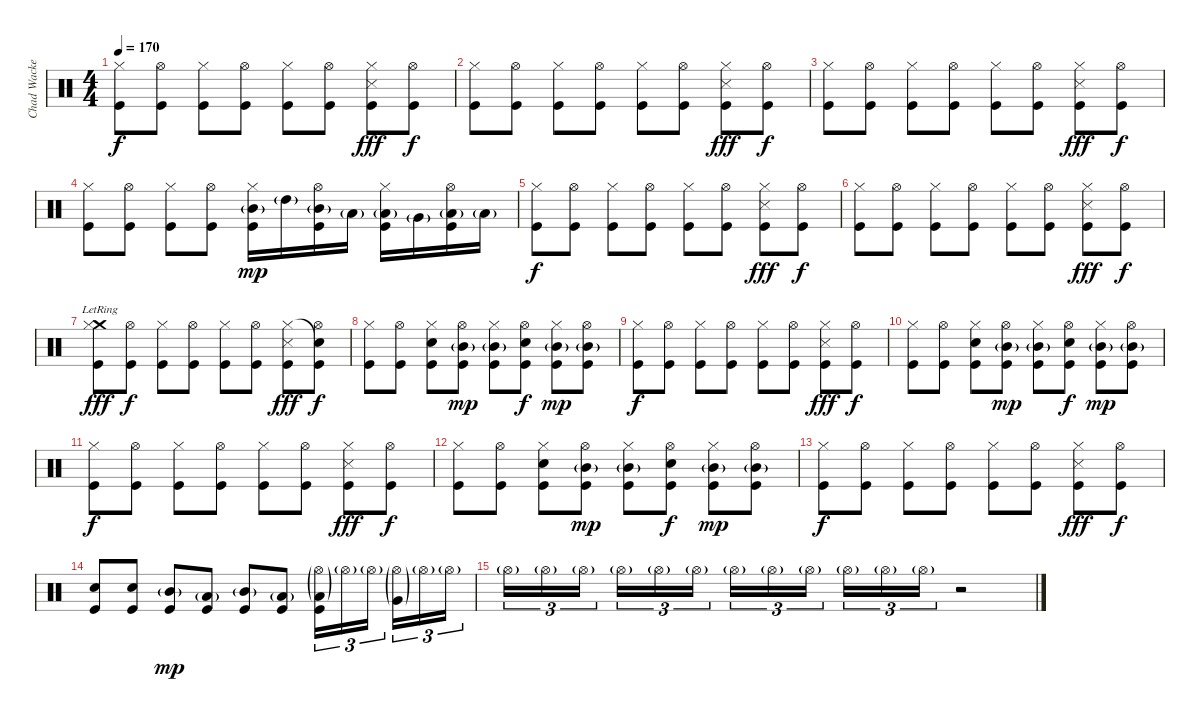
\track ("Chad Wackerman - Drum's" "Chad Wacke") {instrument percussion}
\staff {score}
\articulation defaults
\ts (4 4)
\tempo 170
\clef neutral
\ks c
("Hi-Hat (closed)" "Kick (hit)").8{dy f} ("Hi-Hat (open)" "Kick (hit)").8 ("Hi-Hat (closed)" "Kick (hit)").8 ("Hi-Hat (open)" "Kick (hit)").8 ("Hi-Hat (closed)" "Kick (hit)").8 ("Hi-Hat (open)" "Kick (hit)").8 ("Hi-Hat (closed)" "Metronome (hit)" "Kick (hit)").8{dy fff} ("Hi-Hat (open)" "Kick (hit)").8{dy f} |
("Hi-Hat (closed)" "Kick (hit)").8 ("Hi-Hat (open)" "Kick (hit)").8 ("Hi-Hat (closed)" "Kick (hit)").8 ("Hi-Hat (open)" "Kick (hit)").8 ("Hi-Hat (closed)" "Kick (hit)").8 ("Hi-Hat (open)" "Kick (hit)").8 ("Hi-Hat (closed)" "Metronome (hit)" "Kick (hit)").8{dy fff} ("Hi-Hat (open)" "Kick (hit)").8{dy f} |
("Hi-Hat (closed)" "Kick (hit)").8 ("Hi-Hat (open)" "Kick (hit)").8 ("Hi-Hat (closed)" "Kick (hit)").8 ("Hi-Hat (open)" "Kick (hit)").8 ("Hi-Hat (closed)" "Kick (hit)").8 ("Hi-Hat (open)" "Kick (hit)").8 ("Hi-Hat (closed)" "Metronome (hit)" "Kick (hit)").8{dy fff} ("Hi-Hat (open)" "Kick (hit)").8{dy f} |
("Hi-Hat (closed)" "Kick (hit)").8 ("Hi-Hat (open)" "Kick (hit)").8 ("Hi-Hat (closed)" "Kick (hit)").8 ("Hi-Hat (open)" "Kick (hit)").8 ("Mid Tom (hit)"{g} "Hi-Hat (closed)" "Kick (hit)").16{dy mp} "High Tom (hit)"{g}.16 ("Mid Tom (hit)"{g} "Hi-Hat (open)" "Kick (hit)").16 "Low Tom (hit)"{g}.16 ("Low Tom (hit)"{g} "Hi-Hat (closed)" "Kick (hit)").16 "Very Low Tom (hit)"{g}.16 ("Low Floor Tom (hit)"{g} "Hi-Hat (open)" "Kick (hit)").16 "Low Floor Tom (hit)"{g}.16 |
("Hi-Hat (closed)" "Kick (hit)").8{dy f} ("Hi-Hat (open)" "Kick (hit)").8 ("Hi-Hat (closed)" "Kick (hit)").8 ("Hi-Hat (open)" "Kick (hit)").8 ("Hi-Hat (closed)" "Kick (hit)").8 ("Hi-Hat (open)" "Kick (hit)").8 ("Hi-Hat (closed)" "Metronome (hit)" "Kick (hit)").8{dy fff} ("Hi-Hat (open)" "Kick (hit)").8{dy f} |
("Hi-Hat (closed)" "Kick (hit)").8 ("Hi-Hat (open)" "Kick (hit)").8 ("Hi-Hat (closed)" "Kick (hit)").8 ("Hi-Hat (open)" "Kick (hit)").8 ("Hi-Hat (closed)" "Kick (hit)").8 ("Hi-Hat (open)" "Kick (hit)").8 ("Hi-Hat (closed)" "Metronome (hit)" "Kick (hit)").8{dy fff} ("Hi-Hat (open)" "Kick (hit)").8{dy f} |
("Crash medium (hit)"{lr} "Hi-Hat (closed)" "Kick (hit)").8{dy fff} ("Hi-Hat (open)" "Kick (hit)").8{dy f} ("Hi-Hat (closed)" "Kick (hit)").8 ("Hi-Hat (open)" "Kick (hit)").8 ("Hi-Hat (closed)" "Kick (hit)").8 ("Hi-Hat (open)" "Kick (hit)").8 ("Hi-Hat (closed)" "Metronome (hit)" "Kick (hit)").8{dy fff} ("Snare (hit)"{t} "Hi-Hat (open)" "Kick (hit)").8{dy f} |
("Hi-Hat (closed)" "Kick (hit)").8 ("Hi-Hat (open)" "Kick (hit)").8 ("Hi-Hat (closed)" "Snare (hit) 2" "Kick (hit)").8 ("Mid Tom (hit)"{g} "Hi-Hat (open)" "Kick (hit)").8{dy mp} ("Mid Tom (hit)"{g} "Hi-Hat (closed)" "Kick (hit)").8 ("Hi-Hat (open)" "Snare (hit) 2" "Kick (hit)").8{dy f} ("Mid Tom (hit)"{g} "Hi-Hat (closed)" "Kick (hit)").8{dy mp} ("Mid Tom (hit)"{g} "Hi-Hat (open)" "Kick (hit)").8 |
("Hi-Hat (closed)" "Kick (hit)").8{dy f} ("Hi-Hat (open)" "Kick (hit)").8 ("Hi-Hat (closed)" "Kick (hit)").8 ("Hi-Hat (open)" "Kick (hit)").8 ("Hi-Hat (closed)" "Kick (hit)").8 ("Hi-Hat (open)" "Kick (hit)").8 ("Hi-Hat (closed)" "Metronome (hit)" "Kick (hit)").8{dy fff} ("Hi-Hat (open)" "Kick (hit)").8{dy f} |
("Hi-Hat (closed)" "Kick (hit)").8 ("Hi-Hat (open)" "Kick (hit)").8 ("Hi-Hat (closed)" "Snare (hit) 2" "Kick (hit)").8 ("Mid Tom (hit)"{g} "Hi-Hat (open)" "Kick (hit)").8{dy mp} ("Mid Tom (hit)"{g} "Hi-Hat (closed)" "Kick (hit)").8 ("Hi-Hat (open)" "Snare (hit) 2" "Kick (hit)").8{dy f} ("Mid Tom (hit)"{g} "Hi-Hat (closed)" "Kick (hit)").8{dy mp} ("Mid Tom (hit)"{g} "Hi-Hat (open)" "Kick (hit)").8 |
("Hi-Hat (closed)" "Kick (hit)").8{dy f} ("Hi-Hat (open)" "Kick (hit)").8 ("Hi-Hat (closed)" "Kick (hit)").8 ("Hi-Hat (open)" "Kick (hit)").8 ("Hi-Hat (closed)" "Kick (hit)").8 ("Hi-Hat (open)" "Kick (hit)").8 ("Hi-Hat (closed)" "Metronome (hit)" "Kick (hit)").8{dy fff} ("Hi-Hat (open)" "Kick (hit)").8{dy f} |
("Hi-Hat (closed)" "Kick (hit)").8 ("Hi-Hat (open)" "Kick (hit)").8 ("Hi-Hat (closed)" "Snare (hit) 2" "Kick (hit)").8 ("Mid Tom (hit)"{g} "Hi-Hat (open)" "Kick (hit)").8{dy mp} ("Mid Tom (hit)"{g} "Hi-Hat (closed)" "Kick (hit)").8 ("Hi-Hat (open)" "Snare (hit) 2" "Kick (hit)").8{dy f} ("Mid Tom (hit)"{g} "Hi-Hat (closed)" "Kick (hit)").8{dy mp} ("Mid Tom (hit)"{g} "Hi-Hat (open)" "Kick (hit)").8 |
("Hi-Hat (closed)" "Kick (hit)").8{dy f} ("Hi-Hat (open)" "Kick (hit)").8 ("Hi-Hat (closed)" "Kick (hit)").8 ("Hi-Hat (open)" "Kick (hit)").8 ("Hi-Hat (closed)" "Kick (hit)").8 ("Hi-Hat (open)" "Kick (hit)").8 ("Hi-Hat (closed)" "Metronome (hit)" "Kick (hit)").8{dy fff} ("Hi-Hat (open)" "Kick (hit)").8{dy f} |
("Snare (hit) 2" "Kick (hit)").8 ("Snare (hit) 2" "Kick (hit)").8 ("Mid Tom (hit)"{g} "Kick (hit)").8{dy mp} ("Low Tom (hit)"{g} "Kick (hit)").8 ("Mid Tom (hit)"{g} "Kick (hit)").8 ("Low Tom (hit)"{g} "Kick (hit)").8 ("Low Tom (hit)"{g} "Hi-Hat (open)"{g} "Kick (hit)").16{tu (3 2)} "Hi-Hat (open)"{g}.16{tu (3 2)} "Hi-Hat (open)"{g}.16{tu (3 2)} ("Very Low Tom (hit)"{g} "Hi-Hat (open)"{g}).16{tu (3 2)} "Hi-Hat (open)"{g}.16{tu (3 2)} "Hi-Hat (open)"{g}.16{tu (3 2)} |
"Hi-Hat (open)"{g}.16{tu (3 2)} "Hi-Hat (open)"{g}.16{tu (3 2)} "Hi-Hat (open)"{g}.16{tu (3 2)} "Hi-Hat (open)"{g}.16{tu (3 2)} "Hi-Hat (open)"{g}.16{tu (3 2)} "Hi-Hat (open)"{g}.16{tu (3 2)} "Hi-Hat (open)"{g}.16{tu (3 2)} "Hi-Hat (open)"{g}.16{tu (3 2)} "Hi-Hat (open)"{g}.16{tu (3 2)} "Hi-Hat (open)"{g}.16{tu (3 2)} "Hi-Hat (open)"{g}.16{tu (3 2)} "Hi-Hat (open)"{g}.16{tu (3 2)} r.2
